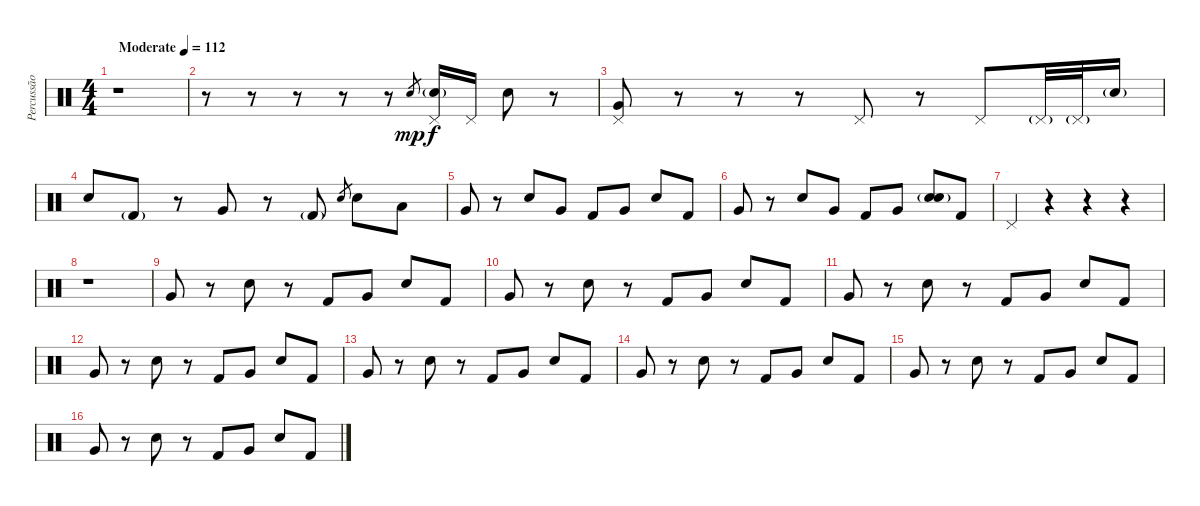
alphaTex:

\track ("Percussão" "Percussão") {instrument percussion}
\staff {score}
\articulation defaults
\ts (4 4)
\tempo (112 "Moderate")
\clef neutral
\ks c
r.1{dy mp} |
r.8 r.8 r.8 r.8 r.8 "Electric Snare (hit)".8{gr} ("Pedal Hi-Hat (hit)" "Electric Snare (hit)"{g}).16{dy f} "Pedal Hi-Hat (hit)".16 "Electric Snare (hit)".8 r.8 |
("Pedal Hi-Hat (hit)" "Very Low Tom (hit)").8 r.8 r.8 r.8 "Pedal Hi-Hat (hit)".8 r.8 "Pedal Hi-Hat (hit)".8 "Pedal Hi-Hat (hit)"{g}.32 "Pedal Hi-Hat (hit)"{g}.32 "Electric Snare (hit)"{g}.16 |
"Electric Snare (hit)".8 "Kick (hit) 2"{g}.8 r.8 "Very Low Tom (hit)".8 r.8 "Kick (hit) 2"{g}.8 "Electric Snare (hit)".8{gr} "Electric Snare (hit)".8 "Low Floor Tom (hit)".8 |
"Very Low Tom (hit)".8 r.8 "Electric Snare (hit)".8 "Very Low Tom (hit)".8 "Kick (hit) 2".8 "Very Low Tom (hit)".8 "Electric Snare (hit)".8 "Kick (hit) 2".8 |
"Very Low Tom (hit)".8 r.8 "Electric Snare (hit)".8 "Very Low Tom (hit)".8 "Kick (hit) 2".8 "Very Low Tom (hit)".8 ("Electric Snare (hit)"{g} "Snare (hit) 2").8 "Kick (hit) 2".8 |
"Pedal Hi-Hat (hit)".4 r.4 r.4 r.4 |
r.1 |
"Very Low Tom (hit)".8 r.8 "Electric Snare (hit)".8 r.8 "Kick (hit) 2".8 "Very Low Tom (hit)".8 "Electric Snare (hit)".8 "Kick (hit) 2".8 |
"Very Low Tom (hit)".8 r.8 "Electric Snare (hit)".8 r.8 "Kick (hit) 2".8 "Very Low Tom (hit)".8 "Electric Snare (hit)".8 "Kick (hit) 2".8 |
"Very Low Tom (hit)".8 r.8 "Electric Snare (hit)".8 r.8 "Kick (hit) 2".8 "Very Low Tom (hit)".8 "Electric Snare (hit)".8 "Kick (hit) 2".8 |
"Very Low Tom (hit)".8 r.8 "Electric Snare (hit)".8 r.8 "Kick (hit) 2".8 "Very Low Tom (hit)".8 "Electric Snare (hit)".8 "Kick (hit) 2".8 |
"Very Low Tom (hit)".8 r.8 "Electric Snare (hit)".8 r.8 "Kick (hit) 2".8 "Very Low Tom (hit)".8 "Electric Snare (hit)".8 "Kick (hit) 2".8 |
"Very Low Tom (hit)".8 r.8 "Electric Snare (hit)".8 r.8 "Kick (hit) 2".8 "Very Low Tom (hit)".8 "Electric Snare (hit)".8 "Kick (hit) 2".8 |
"Very Low Tom (hit)".8 r.8 "Electric Snare (hit)".8 r.8 "Kick (hit) 2".8 "Very Low Tom (hit)".8 "Electric Snare (hit)".8 "Kick (hit) 2".8 |
"Very Low Tom (hit)".8 r.8 "Electric Snare (hit)".8 r.8 "Kick (hit) 2".8 "Very Low Tom (hit)".8 "Electric Snare (hit)".8 "Kick (hit) 2".8
